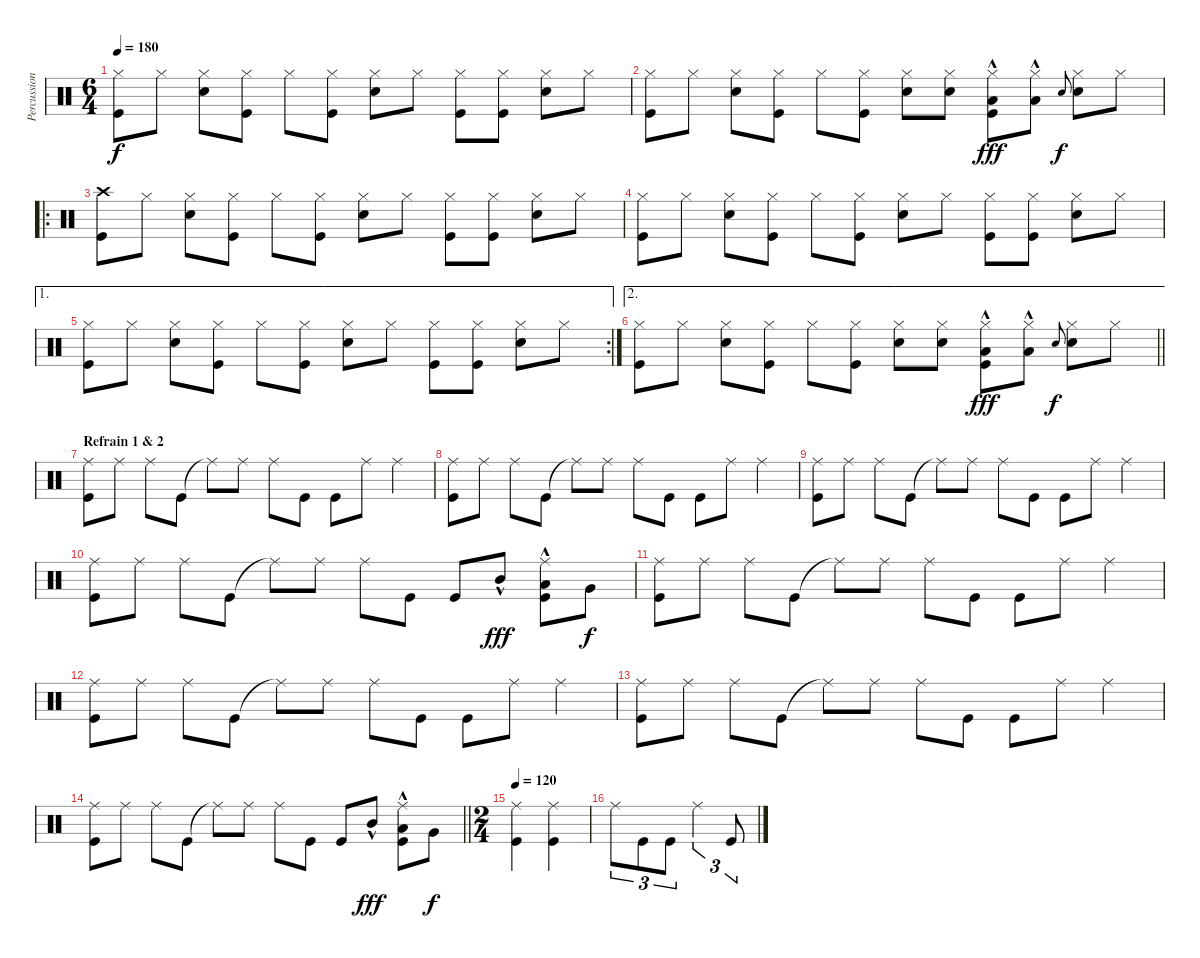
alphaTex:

\track ("Percussions" "Percussion") {instrument percussion}
\staff {score}
\articulation defaults
\ts (6 4)
\tempo 180
\clef neutral
\ks c
("Hi-Hat (closed)" "Kick (hit)").8{dy f} "Hi-Hat (closed)".8 ("Snare (hit) 2" "Hi-Hat (closed)").8 ("Hi-Hat (closed)" "Kick (hit)").8 "Hi-Hat (closed)".8 ("Hi-Hat (closed)" "Kick (hit)").8 ("Snare (hit) 2" "Hi-Hat (closed)").8 "Hi-Hat (closed)".8 ("Hi-Hat (closed)" "Kick (hit)").8 ("Kick (hit)" "Hi-Hat (closed)").8 ("Snare (hit) 2" "Hi-Hat (closed)").8 "Hi-Hat (closed)".8 |
("Hi-Hat (closed)" "Kick (hit)").8 "Hi-Hat (closed)".8 ("Snare (hit) 2" "Hi-Hat (closed)").8 ("Hi-Hat (closed)" "Kick (hit)").8 "Hi-Hat (closed)".8 ("Hi-Hat (closed)" "Kick (hit)").8 ("Snare (hit) 2" "Hi-Hat (closed)").8 ("Snare (hit) 2" "Hi-Hat (closed)").8 ("Hi-Hat (closed)" "Kick (hit)" "Low Tom (hit)"{hac}).8{dy fff} ("Hi-Hat (closed)" "Low Tom (hit)"{hac}).8 "Snare (hit) 2".8{gr onbeat dy f} ("Snare (hit) 2" "Hi-Hat (closed)").8 "Hi-Hat (closed)".8 |
\ro
("Crash high (hit)" "Kick (hit)").8 "Hi-Hat (closed)".8 ("Snare (hit) 2" "Hi-Hat (closed)").8 ("Hi-Hat (closed)" "Kick (hit)").8 "Hi-Hat (closed)".8 ("Hi-Hat (closed)" "Kick (hit)").8 ("Snare (hit) 2" "Hi-Hat (closed)").8 "Hi-Hat (closed)".8 ("Hi-Hat (closed)" "Kick (hit)").8 ("Kick (hit)" "Hi-Hat (closed)").8 ("Snare (hit) 2" "Hi-Hat (closed)").8 "Hi-Hat (closed)".8 |
("Hi-Hat (closed)" "Kick (hit)").8 "Hi-Hat (closed)".8 ("Snare (hit) 2" "Hi-Hat (closed)").8 ("Hi-Hat (closed)" "Kick (hit)").8 "Hi-Hat (closed)".8 ("Hi-Hat (closed)" "Kick (hit)").8 ("Snare (hit) 2" "Hi-Hat (closed)").8 "Hi-Hat (closed)".8 ("Hi-Hat (closed)" "Kick (hit)").8 ("Kick (hit)" "Hi-Hat (closed)").8 ("Snare (hit) 2" "Hi-Hat (closed)").8 "Hi-Hat (closed)".8 |
\ae 1
\rc 2
("Hi-Hat (closed)" "Kick (hit)").8 "Hi-Hat (closed)".8 ("Snare (hit) 2" "Hi-Hat (closed)").8 ("Hi-Hat (closed)" "Kick (hit)").8 "Hi-Hat (closed)".8 ("Hi-Hat (closed)" "Kick (hit)").8 ("Snare (hit) 2" "Hi-Hat (closed)").8 "Hi-Hat (closed)".8 ("Hi-Hat (closed)" "Kick (hit)").8 ("Kick (hit)" "Hi-Hat (closed)").8 ("Snare (hit) 2" "Hi-Hat (closed)").8 "Hi-Hat (closed)".8 |
\ae 2
\barLineRight lightlight
("Hi-Hat (closed)" "Kick (hit)").8 "Hi-Hat (closed)".8 ("Snare (hit) 2" "Hi-Hat (closed)").8 ("Hi-Hat (closed)" "Kick (hit)").8 "Hi-Hat (closed)".8 ("Hi-Hat (closed)" "Kick (hit)").8 ("Snare (hit) 2" "Hi-Hat (closed)").8 ("Snare (hit) 2" "Hi-Hat (closed)").8 ("Hi-Hat (closed)" "Kick (hit)" "Low Tom (hit)"{hac}).8{dy fff} ("Hi-Hat (closed)" "Low Tom (hit)"{hac}).8 "Snare (hit) 2".8{gr onbeat dy f} ("Snare (hit) 2" "Hi-Hat (closed)").8 "Hi-Hat (closed)".8 |
\section ("" "Refrain 1 & 2")
("Ride (middle)" "Kick (hit)").8 "Ride (middle)".8 "Ride (middle)".8 "Kick (hit)".8 "Ride (middle)"{t}.8 "Ride (middle)".8 "Ride (middle)".8 "Kick (hit)".8 "Kick (hit)".8 "Ride (middle)".8 "Ride (middle)".4 |
("Ride (middle)" "Kick (hit)").8 "Ride (middle)".8 "Ride (middle)".8 "Kick (hit)".8 "Ride (middle)"{t}.8 "Ride (middle)".8 "Ride (middle)".8 "Kick (hit)".8 "Kick (hit)".8 "Ride (middle)".8 "Ride (middle)".4 |
("Ride (middle)" "Kick (hit)").8 "Ride (middle)".8 "Ride (middle)".8 "Kick (hit)".8 "Ride (middle)"{t}.8 "Ride (middle)".8 "Ride (middle)".8 "Kick (hit)".8 "Kick (hit)".8 "Ride (middle)".8 "Ride (middle)".4 |
("Ride (middle)" "Kick (hit)").8 "Ride (middle)".8 "Ride (middle)".8 "Kick (hit)".8 "Ride (middle)"{t}.8 "Ride (middle)".8 "Ride (middle)".8 "Kick (hit)".8 "Kick (hit)".8 "Mid Tom (hit)"{hac}.8{dy fff} ("Ride (middle)" "Low Tom (hit)"{hac} "Kick (hit)").8 "Very Low Tom (hit)".8{dy f} |
("Ride (middle)" "Kick (hit)").8 "Ride (middle)".8 "Ride (middle)".8 "Kick (hit)".8 "Ride (middle)"{t}.8 "Ride (middle)".8 "Ride (middle)".8 "Kick (hit)".8 "Kick (hit)".8 "Ride (middle)".8 "Ride (middle)".4 |
("Ride (middle)" "Kick (hit)").8 "Ride (middle)".8 "Ride (middle)".8 "Kick (hit)".8 "Ride (middle)"{t}.8 "Ride (middle)".8 "Ride (middle)".8 "Kick (hit)".8 "Kick (hit)".8 "Ride (middle)".8 "Ride (middle)".4 |
("Ride (middle)" "Kick (hit)").8 "Ride (middle)".8 "Ride (middle)".8 "Kick (hit)".8 "Ride (middle)"{t}.8 "Ride (middle)".8 "Ride (middle)".8 "Kick (hit)".8 "Kick (hit)".8 "Ride (middle)".8 "Ride (middle)".4 |
\barLineRight lightlight
("Ride (middle)" "Kick (hit)").8 "Ride (middle)".8 "Ride (middle)".8 "Kick (hit)".8 "Ride (middle)"{t}.8 "Ride (middle)".8 "Ride (middle)".8 "Kick (hit)".8 "Kick (hit)".8 "Mid Tom (hit)"{hac}.8{dy fff} ("Ride (middle)" "Low Tom (hit)"{hac} "Kick (hit)").8 "Very Low Tom (hit)".8{dy f} |
\ts (2 4)
\tempo 120
("Kick (hit)" "Ride (middle)").4 ("Kick (hit)" "Ride (middle)").4 |
"Ride (middle)".8{tu (3 2)} "Kick (hit)".8{tu (3 2)} "Kick (hit)".8{tu (3 2)} "Ride (middle)".4{tu (3 2)} "Kick (hit)".8{tu (3 2)}
